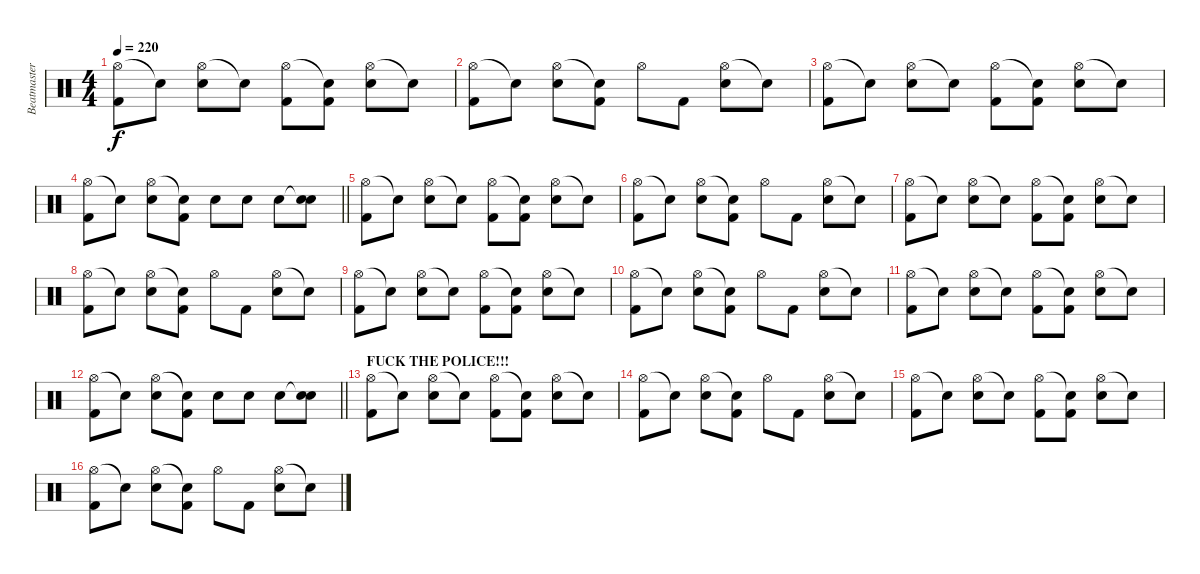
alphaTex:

\track ("Beatmaster V" "Beatmaster") {instrument percussion}
\staff {score}
\articulation defaults
\ts (4 4)
\tempo 220
\clef neutral
\ks c
("Hi-Hat (open)" "Kick (hit) 2").8{dy f} "Snare (hit)"{t}.8 ("Hi-Hat (open)" "Snare (hit) 2").8 "Snare (hit)"{t}.8 ("Hi-Hat (open)" "Kick (hit) 2").8 ("Snare (hit)"{t} "Kick (hit) 2").8 ("Hi-Hat (open)" "Snare (hit) 2").8 "Snare (hit)"{t}.8 |
("Hi-Hat (open)" "Kick (hit) 2").8 "Snare (hit)"{t}.8 ("Hi-Hat (open)" "Snare (hit) 2").8 ("Snare (hit)"{t} "Kick (hit) 2").8 "Hi-Hat (open)".8 "Kick (hit) 2".8 ("Hi-Hat (open)" "Snare (hit) 2").8 "Snare (hit)"{t}.8 |
("Hi-Hat (open)" "Kick (hit) 2").8 "Snare (hit)"{t}.8 ("Hi-Hat (open)" "Snare (hit) 2").8 "Snare (hit)"{t}.8 ("Hi-Hat (open)" "Kick (hit) 2").8 ("Snare (hit)"{t} "Kick (hit) 2").8 ("Hi-Hat (open)" "Snare (hit) 2").8 "Snare (hit)"{t}.8 |
\barLineRight lightlight
("Hi-Hat (open)" "Kick (hit) 2").8 "Snare (hit)"{t}.8 ("Hi-Hat (open)" "Snare (hit) 2").8 ("Snare (hit)"{t} "Kick (hit) 2").8 "Snare (hit) 2".8 "Snare (hit) 2".8 "Snare (hit) 2".8 ("Snare (hit)"{t} "Snare (hit) 2").8 |
("Hi-Hat (open)" "Kick (hit) 2").8 "Snare (hit)"{t}.8 ("Hi-Hat (open)" "Snare (hit) 2").8 "Snare (hit)"{t}.8 ("Hi-Hat (open)" "Kick (hit) 2").8 ("Snare (hit)"{t} "Kick (hit) 2").8 ("Hi-Hat (open)" "Snare (hit) 2").8 "Snare (hit)"{t}.8 |
("Hi-Hat (open)" "Kick (hit) 2").8 "Snare (hit)"{t}.8 ("Hi-Hat (open)" "Snare (hit) 2").8 ("Snare (hit)"{t} "Kick (hit) 2").8 "Hi-Hat (open)".8 "Kick (hit) 2".8 ("Hi-Hat (open)" "Snare (hit) 2").8 "Snare (hit)"{t}.8 |
("Hi-Hat (open)" "Kick (hit) 2").8 "Snare (hit)"{t}.8 ("Hi-Hat (open)" "Snare (hit) 2").8 "Snare (hit)"{t}.8 ("Hi-Hat (open)" "Kick (hit) 2").8 ("Snare (hit)"{t} "Kick (hit) 2").8 ("Hi-Hat (open)" "Snare (hit) 2").8 "Snare (hit)"{t}.8 |
("Hi-Hat (open)" "Kick (hit) 2").8 "Snare (hit)"{t}.8 ("Hi-Hat (open)" "Snare (hit) 2").8 ("Snare (hit)"{t} "Kick (hit) 2").8 "Hi-Hat (open)".8 "Kick (hit) 2".8 ("Hi-Hat (open)" "Snare (hit) 2").8 "Snare (hit)"{t}.8 |
("Hi-Hat (open)" "Kick (hit) 2").8 "Snare (hit)"{t}.8 ("Hi-Hat (open)" "Snare (hit) 2").8 "Snare (hit)"{t}.8 ("Hi-Hat (open)" "Kick (hit) 2").8 ("Snare (hit)"{t} "Kick (hit) 2").8 ("Hi-Hat (open)" "Snare (hit) 2").8 "Snare (hit)"{t}.8 |
("Hi-Hat (open)" "Kick (hit) 2").8 "Snare (hit)"{t}.8 ("Hi-Hat (open)" "Snare (hit) 2").8 ("Snare (hit)"{t} "Kick (hit) 2").8 "Hi-Hat (open)".8 "Kick (hit) 2".8 ("Hi-Hat (open)" "Snare (hit) 2").8 "Snare (hit)"{t}.8 |
("Hi-Hat (open)" "Kick (hit) 2").8 "Snare (hit)"{t}.8 ("Hi-Hat (open)" "Snare (hit) 2").8 "Snare (hit)"{t}.8 ("Hi-Hat (open)" "Kick (hit) 2").8 ("Snare (hit)"{t} "Kick (hit) 2").8 ("Hi-Hat (open)" "Snare (hit) 2").8 "Snare (hit)"{t}.8 |
\barLineRight lightlight
("Hi-Hat (open)" "Kick (hit) 2").8 "Snare (hit)"{t}.8 ("Hi-Hat (open)" "Snare (hit) 2").8 ("Snare (hit)"{t} "Kick (hit) 2").8 "Snare (hit) 2".8 "Snare (hit) 2".8 "Snare (hit) 2".8 ("Snare (hit)"{t} "Snare (hit) 2").8 |
\section ("" "FUCK THE POLICE!!!")
("Hi-Hat (open)" "Kick (hit) 2").8 "Snare (hit)"{t}.8 ("Hi-Hat (open)" "Snare (hit) 2").8 "Snare (hit)"{t}.8 ("Hi-Hat (open)" "Kick (hit) 2").8 ("Snare (hit)"{t} "Kick (hit) 2").8 ("Hi-Hat (open)" "Snare (hit) 2").8 "Snare (hit)"{t}.8 |
("Hi-Hat (open)" "Kick (hit) 2").8 "Snare (hit)"{t}.8 ("Hi-Hat (open)" "Snare (hit) 2").8 ("Snare (hit)"{t} "Kick (hit) 2").8 "Hi-Hat (open)".8 "Kick (hit) 2".8 ("Hi-Hat (open)" "Snare (hit) 2").8 "Snare (hit)"{t}.8 |
("Hi-Hat (open)" "Kick (hit) 2").8 "Snare (hit)"{t}.8 ("Hi-Hat (open)" "Snare (hit) 2").8 "Snare (hit)"{t}.8 ("Hi-Hat (open)" "Kick (hit) 2").8 ("Snare (hit)"{t} "Kick (hit) 2").8 ("Hi-Hat (open)" "Snare (hit) 2").8 "Snare (hit)"{t}.8 |
("Hi-Hat (open)" "Kick (hit) 2").8 "Snare (hit)"{t}.8 ("Hi-Hat (open)" "Snare (hit) 2").8 ("Snare (hit)"{t} "Kick (hit) 2").8 "Hi-Hat (open)".8 "Kick (hit) 2".8 ("Hi-Hat (open)" "Snare (hit) 2").8 "Snare (hit)"{t}.8
